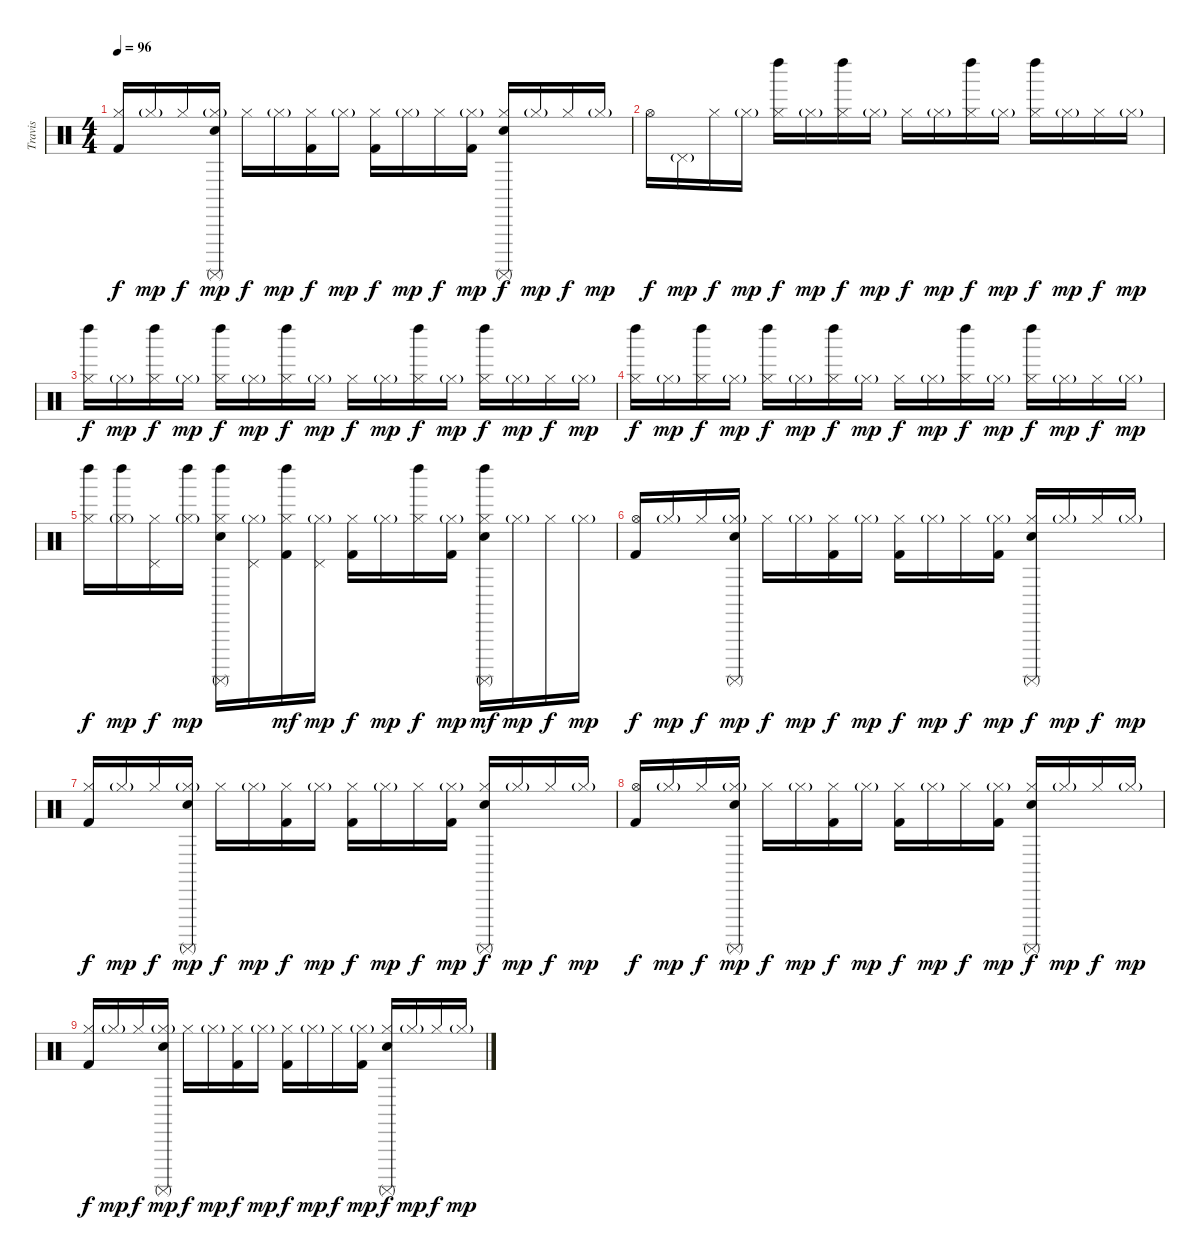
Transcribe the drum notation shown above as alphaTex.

\track ("Travis" "Travis") {instrument percussion bank 127}
\staff {score}
\articulation defaults
\ts (4 4)
\tempo 96
\clef neutral
\ks c
("Hi-Hat (closed)" "Kick (hit) 2").16{dy f} "Hi-Hat (closed)"{g}.16{dy mp} "Hi-Hat (closed)".16{dy f} ("Hi-Hat (closed)"{g} "Electric Snare (hit)" "Surdo (mute)").16{dy mp} "Hi-Hat (closed)".16{dy f} "Hi-Hat (closed)"{g}.16{dy mp} ("Hi-Hat (closed)" "Kick (hit) 2").16{dy f} "Hi-Hat (closed)"{g}.16{dy mp} ("Hi-Hat (closed)" "Kick (hit) 2").16{dy f} "Hi-Hat (closed)"{g}.16{dy mp} "Hi-Hat (closed)".16{dy f} ("Hi-Hat (closed)"{g} "Kick (hit) 2").16{dy mp} ("Hi-Hat (closed)" "Electric Snare (hit)" "Surdo (mute)").16{dy f} "Hi-Hat (closed)"{g}.16{dy mp} "Hi-Hat (closed)".16{dy f} "Hi-Hat (closed)"{g}.16{dy mp} |
"Hi-Hat (open)".16{dy f} "Pedal Hi-Hat (hit)"{g}.16{dy mp} "Hi-Hat (closed)".16{dy f} "Hi-Hat (closed)"{g}.16{dy mp} ("Left Maraca (hit)" "Hi-Hat (closed)").16{dy f} "Hi-Hat (closed)"{g}.16{dy mp} ("Left Maraca (hit)" "Hi-Hat (closed)").16{dy f} "Hi-Hat (closed)"{g}.16{dy mp} "Hi-Hat (closed)".16{dy f} "Hi-Hat (closed)"{g}.16{dy mp} ("Left Maraca (hit)" "Hi-Hat (closed)").16{dy f} "Hi-Hat (closed)"{g}.16{dy mp} ("Left Maraca (hit)" "Hi-Hat (closed)").16{dy f} "Hi-Hat (closed)"{g}.16{dy mp} "Hi-Hat (closed)".16{dy f} "Hi-Hat (closed)"{g}.16{dy mp} |
("Left Maraca (hit)" "Hi-Hat (closed)").16{dy f} "Hi-Hat (closed)"{g}.16{dy mp} ("Left Maraca (hit)" "Hi-Hat (closed)").16{dy f} "Hi-Hat (closed)"{g}.16{dy mp} ("Left Maraca (hit)" "Hi-Hat (closed)").16{dy f} "Hi-Hat (closed)"{g}.16{dy mp} ("Left Maraca (hit)" "Hi-Hat (closed)").16{dy f} "Hi-Hat (closed)"{g}.16{dy mp} "Hi-Hat (closed)".16{dy f} "Hi-Hat (closed)"{g}.16{dy mp} ("Left Maraca (hit)" "Hi-Hat (closed)").16{dy f} "Hi-Hat (closed)"{g}.16{dy mp} ("Left Maraca (hit)" "Hi-Hat (closed)").16{dy f} "Hi-Hat (closed)"{g}.16{dy mp} "Hi-Hat (closed)".16{dy f} "Hi-Hat (closed)"{g}.16{dy mp} |
("Left Maraca (hit)" "Hi-Hat (closed)").16{dy f} "Hi-Hat (closed)"{g}.16{dy mp} ("Left Maraca (hit)" "Hi-Hat (closed)").16{dy f} "Hi-Hat (closed)"{g}.16{dy mp} ("Left Maraca (hit)" "Hi-Hat (closed)").16{dy f} "Hi-Hat (closed)"{g}.16{dy mp} ("Left Maraca (hit)" "Hi-Hat (closed)").16{dy f} "Hi-Hat (closed)"{g}.16{dy mp} "Hi-Hat (closed)".16{dy f} "Hi-Hat (closed)"{g}.16{dy mp} ("Left Maraca (hit)" "Hi-Hat (closed)").16{dy f} "Hi-Hat (closed)"{g}.16{dy mp} ("Left Maraca (hit)" "Hi-Hat (closed)").16{dy f} "Hi-Hat (closed)"{g}.16{dy mp} "Hi-Hat (closed)".16{dy f} "Hi-Hat (closed)"{g}.16{dy mp} |
("Left Maraca (hit)" "Hi-Hat (closed)").16{dy f} ("Left Maraca (hit)" "Hi-Hat (closed)"{g}).16{dy mp} ("Pedal Hi-Hat (hit)" "Hi-Hat (closed)").16{dy f} ("Left Maraca (hit)" "Hi-Hat (closed)"{g}).16{dy mp} ("Left Maraca (hit)" "Hi-Hat (closed)" "Electric Snare (hit)" "Surdo (mute)").16 ("Pedal Hi-Hat (hit)" "Hi-Hat (closed)"{g}).16 ("Left Maraca (hit)" "Hi-Hat (closed)" "Kick (hit) 2").16{dy mf} ("Pedal Hi-Hat (hit)" "Hi-Hat (closed)"{g}).16{dy mp} ("Hi-Hat (closed)" "Kick (hit) 2").16{dy f} "Hi-Hat (closed)"{g}.16{dy mp} ("Left Maraca (hit)" "Hi-Hat (closed)").16{dy f} ("Hi-Hat (closed)"{g} "Kick (hit) 2").16{dy mp} ("Left Maraca (hit)" "Hi-Hat (closed)" "Electric Snare (hit)" "Surdo (mute)").16{dy mf} "Hi-Hat (closed)"{g}.16{dy mp} "Hi-Hat (closed)".16{dy f} "Hi-Hat (closed)"{g}.16{dy mp} |
("Hi-Hat (open)" "Kick (hit) 2").16{dy f} "Hi-Hat (closed)"{g}.16{dy mp} "Hi-Hat (closed)".16{dy f} ("Hi-Hat (closed)"{g} "Electric Snare (hit)" "Surdo (mute)").16{dy mp} "Hi-Hat (closed)".16{dy f} "Hi-Hat (closed)"{g}.16{dy mp} ("Hi-Hat (closed)" "Kick (hit) 2").16{dy f} "Hi-Hat (closed)"{g}.16{dy mp} ("Hi-Hat (closed)" "Kick (hit) 2").16{dy f} "Hi-Hat (closed)"{g}.16{dy mp} "Hi-Hat (closed)".16{dy f} ("Hi-Hat (closed)"{g} "Kick (hit) 2").16{dy mp} ("Hi-Hat (closed)" "Electric Snare (hit)" "Surdo (mute)").16{dy f} "Hi-Hat (closed)"{g}.16{dy mp} "Hi-Hat (closed)".16{dy f} "Hi-Hat (closed)"{g}.16{dy mp} |
("Hi-Hat (closed)" "Kick (hit) 2").16{dy f} "Hi-Hat (closed)"{g}.16{dy mp} "Hi-Hat (closed)".16{dy f} ("Hi-Hat (closed)"{g} "Electric Snare (hit)" "Surdo (mute)").16{dy mp} "Hi-Hat (closed)".16{dy f} "Hi-Hat (closed)"{g}.16{dy mp} ("Hi-Hat (closed)" "Kick (hit) 2").16{dy f} "Hi-Hat (closed)"{g}.16{dy mp} ("Hi-Hat (closed)" "Kick (hit) 2").16{dy f} "Hi-Hat (closed)"{g}.16{dy mp} "Hi-Hat (closed)".16{dy f} ("Hi-Hat (closed)"{g} "Kick (hit) 2").16{dy mp} ("Hi-Hat (closed)" "Electric Snare (hit)" "Surdo (mute)").16{dy f} "Hi-Hat (closed)"{g}.16{dy mp} "Hi-Hat (closed)".16{dy f} "Hi-Hat (closed)"{g}.16{dy mp} |
("Hi-Hat (open)" "Kick (hit) 2").16{dy f} "Hi-Hat (closed)"{g}.16{dy mp} "Hi-Hat (closed)".16{dy f} ("Hi-Hat (closed)"{g} "Electric Snare (hit)" "Surdo (mute)").16{dy mp} "Hi-Hat (closed)".16{dy f} "Hi-Hat (closed)"{g}.16{dy mp} ("Hi-Hat (closed)" "Kick (hit) 2").16{dy f} "Hi-Hat (closed)"{g}.16{dy mp} ("Hi-Hat (closed)" "Kick (hit) 2").16{dy f} "Hi-Hat (closed)"{g}.16{dy mp} "Hi-Hat (closed)".16{dy f} ("Hi-Hat (closed)"{g} "Kick (hit) 2").16{dy mp} ("Hi-Hat (closed)" "Electric Snare (hit)" "Surdo (mute)").16{dy f} "Hi-Hat (closed)"{g}.16{dy mp} "Hi-Hat (closed)".16{dy f} "Hi-Hat (closed)"{g}.16{dy mp} |
("Hi-Hat (closed)" "Kick (hit) 2").16{dy f} "Hi-Hat (closed)"{g}.16{dy mp} "Hi-Hat (closed)".16{dy f} ("Hi-Hat (closed)"{g} "Electric Snare (hit)" "Surdo (mute)").16{dy mp} "Hi-Hat (closed)".16{dy f} "Hi-Hat (closed)"{g}.16{dy mp} ("Hi-Hat (closed)" "Kick (hit) 2").16{dy f} "Hi-Hat (closed)"{g}.16{dy mp} ("Hi-Hat (closed)" "Kick (hit) 2").16{dy f} "Hi-Hat (closed)"{g}.16{dy mp} "Hi-Hat (closed)".16{dy f} ("Hi-Hat (closed)"{g} "Kick (hit) 2").16{dy mp} ("Hi-Hat (closed)" "Electric Snare (hit)" "Surdo (mute)").16{dy f} "Hi-Hat (closed)"{g}.16{dy mp} "Hi-Hat (closed)".16{dy f} "Hi-Hat (closed)"{g}.16{dy mp}
